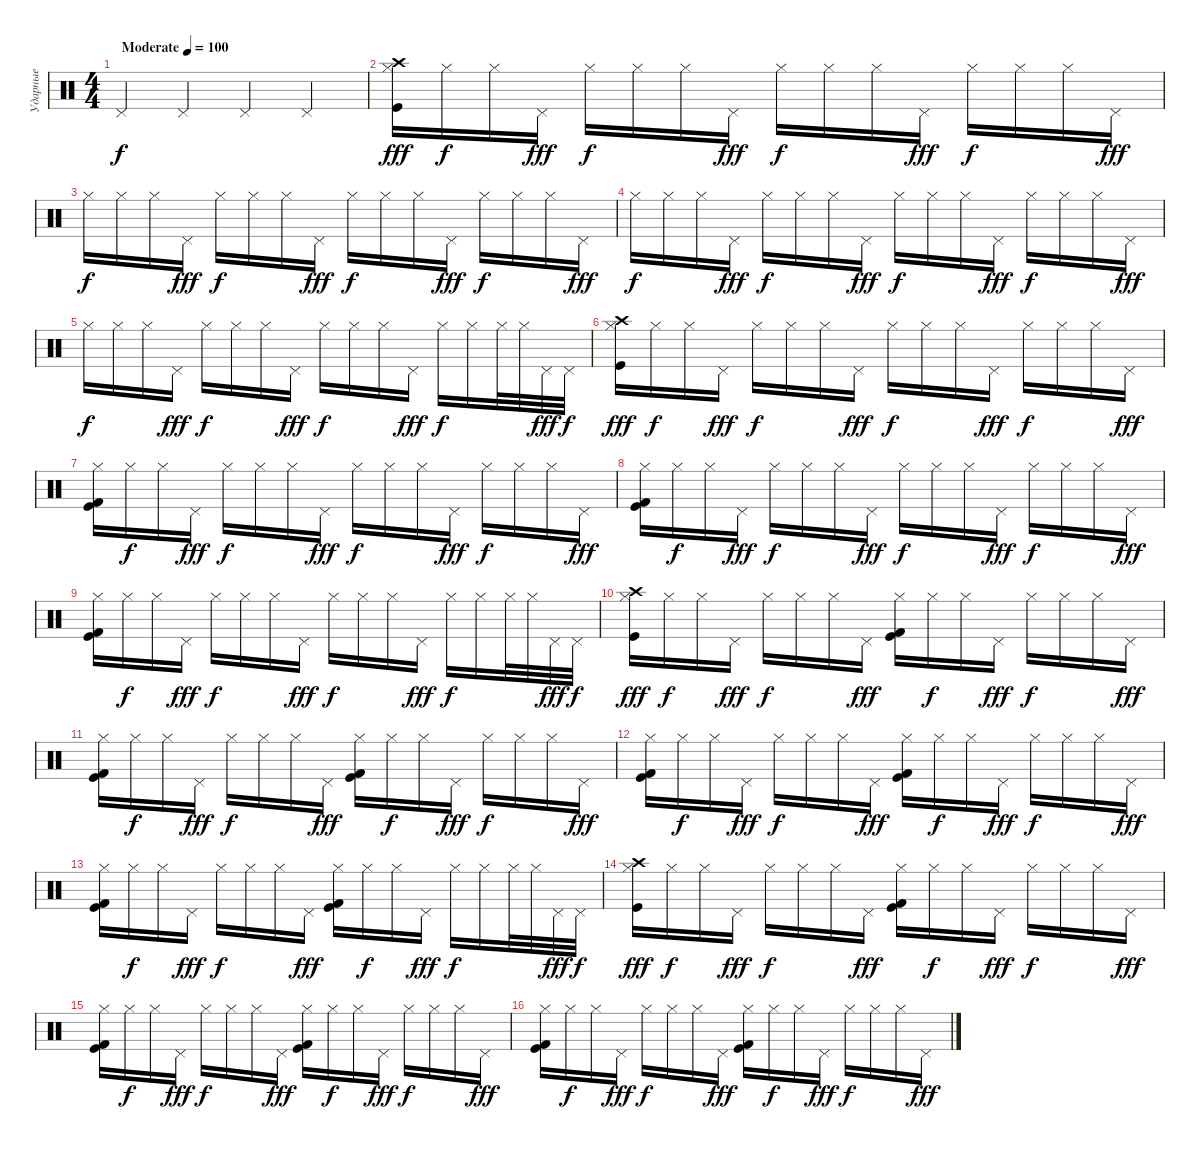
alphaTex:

\track ("Ударные" "Ударные") {instrument percussion}
\staff {score}
\articulation defaults
\ts (4 4)
\tempo (100 "Moderate")
\clef neutral
\ks c "Pedal Hi-Hat (hit)".4{dy f} "Pedal Hi-Hat (hit)".4 "Pedal Hi-Hat (hit)".4 "Pedal Hi-Hat (hit)".4
|
("Hi-Hat (closed)" "Kick (hit)" "Crash high (hit)").16{dy fff} "Hi-Hat (closed)".16{dy f} "Hi-Hat (closed)".16 "Pedal Hi-Hat (hit)".16{dy fff} "Hi-Hat (closed)".16{dy f} "Hi-Hat (closed)".16 "Hi-Hat (closed)".16 "Pedal Hi-Hat (hit)".16{dy fff} "Hi-Hat (closed)".16{dy f} "Hi-Hat (closed)".16 "Hi-Hat (closed)".16 "Pedal Hi-Hat (hit)".16{dy fff} "Hi-Hat (closed)".16{dy f} "Hi-Hat (closed)".16 "Hi-Hat (closed)".16 "Pedal Hi-Hat (hit)".16{dy fff} |
"Hi-Hat (closed)".16{dy f} "Hi-Hat (closed)".16 "Hi-Hat (closed)".16 "Pedal Hi-Hat (hit)".16{dy fff} "Hi-Hat (closed)".16{dy f} "Hi-Hat (closed)".16 "Hi-Hat (closed)".16 "Pedal Hi-Hat (hit)".16{dy fff} "Hi-Hat (closed)".16{dy f} "Hi-Hat (closed)".16 "Hi-Hat (closed)".16 "Pedal Hi-Hat (hit)".16{dy fff} "Hi-Hat (closed)".16{dy f} "Hi-Hat (closed)".16 "Hi-Hat (closed)".16 "Pedal Hi-Hat (hit)".16{dy fff} |
"Hi-Hat (closed)".16{dy f} "Hi-Hat (closed)".16 "Hi-Hat (closed)".16 "Pedal Hi-Hat (hit)".16{dy fff} "Hi-Hat (closed)".16{dy f} "Hi-Hat (closed)".16 "Hi-Hat (closed)".16 "Pedal Hi-Hat (hit)".16{dy fff} "Hi-Hat (closed)".16{dy f} "Hi-Hat (closed)".16 "Hi-Hat (closed)".16 "Pedal Hi-Hat (hit)".16{dy fff} "Hi-Hat (closed)".16{dy f} "Hi-Hat (closed)".16 "Hi-Hat (closed)".16 "Pedal Hi-Hat (hit)".16{dy fff} |
"Hi-Hat (closed)".16{dy f} "Hi-Hat (closed)".16 "Hi-Hat (closed)".16 "Pedal Hi-Hat (hit)".16{dy fff} "Hi-Hat (closed)".16{dy f} "Hi-Hat (closed)".16 "Hi-Hat (closed)".16 "Pedal Hi-Hat (hit)".16{dy fff} "Hi-Hat (closed)".16{dy f} "Hi-Hat (closed)".16 "Hi-Hat (closed)".16 "Pedal Hi-Hat (hit)".16{dy fff} "Hi-Hat (closed)".16{dy f} "Hi-Hat (closed)".16 "Hi-Hat (closed)".32 "Hi-Hat (closed)".32 "Pedal Hi-Hat (hit)".32{dy fff} "Pedal Hi-Hat (hit)".32{dy f} |
("Hi-Hat (closed)" "Kick (hit)" "Crash high (hit)").16{dy fff} "Hi-Hat (closed)".16{dy f} "Hi-Hat (closed)".16 "Pedal Hi-Hat (hit)".16{dy fff} "Hi-Hat (closed)".16{dy f} "Hi-Hat (closed)".16 "Hi-Hat (closed)".16 "Pedal Hi-Hat (hit)".16{dy fff} "Hi-Hat (closed)".16{dy f} "Hi-Hat (closed)".16 "Hi-Hat (closed)".16 "Pedal Hi-Hat (hit)".16{dy fff} "Hi-Hat (closed)".16{dy f} "Hi-Hat (closed)".16 "Hi-Hat (closed)".16 "Pedal Hi-Hat (hit)".16{dy fff} |
("Hi-Hat (closed)" "Kick (hit)" "Kick (hit) 2").16 "Hi-Hat (closed)".16{dy f} "Hi-Hat (closed)".16 "Pedal Hi-Hat (hit)".16{dy fff} "Hi-Hat (closed)".16{dy f} "Hi-Hat (closed)".16 "Hi-Hat (closed)".16 "Pedal Hi-Hat (hit)".16{dy fff} "Hi-Hat (closed)".16{dy f} "Hi-Hat (closed)".16 "Hi-Hat (closed)".16 "Pedal Hi-Hat (hit)".16{dy fff} "Hi-Hat (closed)".16{dy f} "Hi-Hat (closed)".16 "Hi-Hat (closed)".16 "Pedal Hi-Hat (hit)".16{dy fff} |
("Hi-Hat (closed)" "Kick (hit)" "Kick (hit) 2").16 "Hi-Hat (closed)".16{dy f} "Hi-Hat (closed)".16 "Pedal Hi-Hat (hit)".16{dy fff} "Hi-Hat (closed)".16{dy f} "Hi-Hat (closed)".16 "Hi-Hat (closed)".16 "Pedal Hi-Hat (hit)".16{dy fff} "Hi-Hat (closed)".16{dy f} "Hi-Hat (closed)".16 "Hi-Hat (closed)".16 "Pedal Hi-Hat (hit)".16{dy fff} "Hi-Hat (closed)".16{dy f} "Hi-Hat (closed)".16 "Hi-Hat (closed)".16 "Pedal Hi-Hat (hit)".16{dy fff} |
("Hi-Hat (closed)" "Kick (hit)" "Kick (hit) 2").16 "Hi-Hat (closed)".16{dy f} "Hi-Hat (closed)".16 "Pedal Hi-Hat (hit)".16{dy fff} "Hi-Hat (closed)".16{dy f} "Hi-Hat (closed)".16 "Hi-Hat (closed)".16 "Pedal Hi-Hat (hit)".16{dy fff} "Hi-Hat (closed)".16{dy f} "Hi-Hat (closed)".16 "Hi-Hat (closed)".16 "Pedal Hi-Hat (hit)".16{dy fff} "Hi-Hat (closed)".16{dy f} "Hi-Hat (closed)".16 "Hi-Hat (closed)".32 "Hi-Hat (closed)".32 "Pedal Hi-Hat (hit)".32{dy fff} "Pedal Hi-Hat (hit)".32{dy f} |
("Hi-Hat (closed)" "Kick (hit)" "Crash high (hit)").16{dy fff} "Hi-Hat (closed)".16{dy f} "Hi-Hat (closed)".16 "Pedal Hi-Hat (hit)".16{dy fff} "Hi-Hat (closed)".16{dy f} "Hi-Hat (closed)".16 "Hi-Hat (closed)".16 "Pedal Hi-Hat (hit)".16{dy fff} ("Hi-Hat (closed)" "Kick (hit)" "Kick (hit) 2").16 "Hi-Hat (closed)".16{dy f} "Hi-Hat (closed)".16 "Pedal Hi-Hat (hit)".16{dy fff} "Hi-Hat (closed)".16{dy f} "Hi-Hat (closed)".16 "Hi-Hat (closed)".16 "Pedal Hi-Hat (hit)".16{dy fff} |
("Hi-Hat (closed)" "Kick (hit)" "Kick (hit) 2").16 "Hi-Hat (closed)".16{dy f} "Hi-Hat (closed)".16 "Pedal Hi-Hat (hit)".16{dy fff} "Hi-Hat (closed)".16{dy f} "Hi-Hat (closed)".16 "Hi-Hat (closed)".16 "Pedal Hi-Hat (hit)".16{dy fff} ("Hi-Hat (closed)" "Kick (hit)" "Kick (hit) 2").16 "Hi-Hat (closed)".16{dy f} "Hi-Hat (closed)".16 "Pedal Hi-Hat (hit)".16{dy fff} "Hi-Hat (closed)".16{dy f} "Hi-Hat (closed)".16 "Hi-Hat (closed)".16 "Pedal Hi-Hat (hit)".16{dy fff} |
("Hi-Hat (closed)" "Kick (hit)" "Kick (hit) 2").16 "Hi-Hat (closed)".16{dy f} "Hi-Hat (closed)".16 "Pedal Hi-Hat (hit)".16{dy fff} "Hi-Hat (closed)".16{dy f} "Hi-Hat (closed)".16 "Hi-Hat (closed)".16 "Pedal Hi-Hat (hit)".16{dy fff} ("Hi-Hat (closed)" "Kick (hit)" "Kick (hit) 2").16 "Hi-Hat (closed)".16{dy f} "Hi-Hat (closed)".16 "Pedal Hi-Hat (hit)".16{dy fff} "Hi-Hat (closed)".16{dy f} "Hi-Hat (closed)".16 "Hi-Hat (closed)".16 "Pedal Hi-Hat (hit)".16{dy fff} |
("Hi-Hat (closed)" "Kick (hit)" "Kick (hit) 2").16 "Hi-Hat (closed)".16{dy f} "Hi-Hat (closed)".16 "Pedal Hi-Hat (hit)".16{dy fff} "Hi-Hat (closed)".16{dy f} "Hi-Hat (closed)".16 "Hi-Hat (closed)".16 "Pedal Hi-Hat (hit)".16{dy fff} ("Hi-Hat (closed)" "Kick (hit)" "Kick (hit) 2").16 "Hi-Hat (closed)".16{dy f} "Hi-Hat (closed)".16 "Pedal Hi-Hat (hit)".16{dy fff} "Hi-Hat (closed)".16{dy f} "Hi-Hat (closed)".16 "Hi-Hat (closed)".32 "Hi-Hat (closed)".32 "Pedal Hi-Hat (hit)".32{dy fff} "Pedal Hi-Hat (hit)".32{dy f} |
("Hi-Hat (closed)" "Kick (hit)" "Crash high (hit)").16{dy fff} "Hi-Hat (closed)".16{dy f} "Hi-Hat (closed)".16 "Pedal Hi-Hat (hit)".16{dy fff} "Hi-Hat (closed)".16{dy f} "Hi-Hat (closed)".16 "Hi-Hat (closed)".16 "Pedal Hi-Hat (hit)".16{dy fff} ("Hi-Hat (closed)" "Kick (hit)" "Kick (hit) 2").16 "Hi-Hat (closed)".16{dy f} "Hi-Hat (closed)".16 "Pedal Hi-Hat (hit)".16{dy fff} "Hi-Hat (closed)".16{dy f} "Hi-Hat (closed)".16 "Hi-Hat (closed)".16 "Pedal Hi-Hat (hit)".16{dy fff} |
("Hi-Hat (closed)" "Kick (hit)" "Kick (hit) 2").16 "Hi-Hat (closed)".16{dy f} "Hi-Hat (closed)".16 "Pedal Hi-Hat (hit)".16{dy fff} "Hi-Hat (closed)".16{dy f} "Hi-Hat (closed)".16 "Hi-Hat (closed)".16 "Pedal Hi-Hat (hit)".16{dy fff} ("Hi-Hat (closed)" "Kick (hit)" "Kick (hit) 2").16 "Hi-Hat (closed)".16{dy f} "Hi-Hat (closed)".16 "Pedal Hi-Hat (hit)".16{dy fff} "Hi-Hat (closed)".16{dy f} "Hi-Hat (closed)".16 "Hi-Hat (closed)".16 "Pedal Hi-Hat (hit)".16{dy fff} |
("Hi-Hat (closed)" "Kick (hit)" "Kick (hit) 2").16 "Hi-Hat (closed)".16{dy f} "Hi-Hat (closed)".16 "Pedal Hi-Hat (hit)".16{dy fff} "Hi-Hat (closed)".16{dy f} "Hi-Hat (closed)".16 "Hi-Hat (closed)".16 "Pedal Hi-Hat (hit)".16{dy fff} ("Hi-Hat (closed)" "Kick (hit)" "Kick (hit) 2").16 "Hi-Hat (closed)".16{dy f} "Hi-Hat (closed)".16 "Pedal Hi-Hat (hit)".16{dy fff} "Hi-Hat (closed)".16{dy f} "Hi-Hat (closed)".16 "Hi-Hat (closed)".16 "Pedal Hi-Hat (hit)".16{dy fff}
